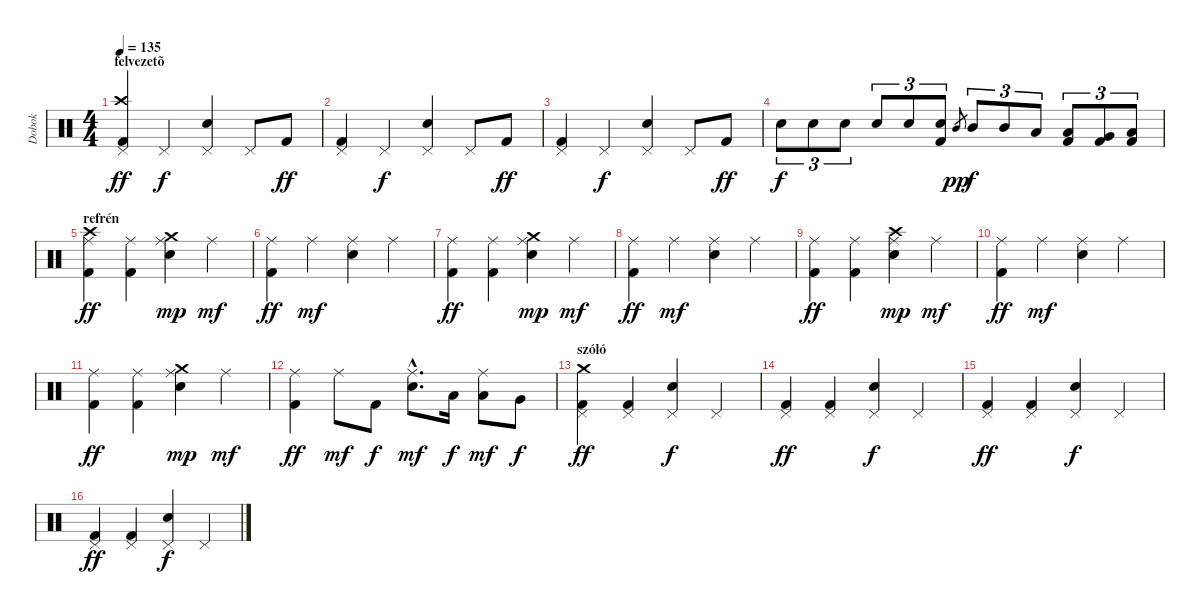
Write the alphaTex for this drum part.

\track ("Dobok" "Dobok") {instrument percussion}
\staff {score}
\articulation defaults
\ts (4 4)
\section ("" "felvezetõ")
\tempo 135
\clef neutral
\ks c
("Pedal Hi-Hat (hit)" "Crash high (hit)" "Kick (hit) 2").4{dy ff} "Pedal Hi-Hat (hit)".4{dy f} ("Pedal Hi-Hat (hit)" "Electric Snare (hit)").4 "Pedal Hi-Hat (hit)".8 "Kick (hit) 2".8{dy ff} |
("Pedal Hi-Hat (hit)" "Kick (hit) 2").4 "Pedal Hi-Hat (hit)".4{dy f} ("Pedal Hi-Hat (hit)" "Electric Snare (hit)").4 "Pedal Hi-Hat (hit)".8 "Kick (hit) 2".8{dy ff} |
("Pedal Hi-Hat (hit)" "Kick (hit) 2").4 "Pedal Hi-Hat (hit)".4{dy f} ("Pedal Hi-Hat (hit)" "Electric Snare (hit)").4 "Pedal Hi-Hat (hit)".8 "Kick (hit) 2".8{dy ff} |
"Electric Snare (hit)".8{tu (3 2) dy f} "Electric Snare (hit)".8{tu (3 2)} "Electric Snare (hit)".8{tu (3 2)} "Electric Snare (hit)".8{tu (3 2)} "Electric Snare (hit)".8{tu (3 2)} ("Electric Snare (hit)" "Kick (hit) 2").8{tu (3 2)} "Mid Tom (hit)".8{gr dy pp} "Mid Tom (hit)".8{tu (3 2) dy f} "Mid Tom (hit)".8{tu (3 2)} "Low Tom (hit)".8{tu (3 2)} ("Low Tom (hit)" "Kick (hit) 2").8{tu (3 2)} ("Very Low Tom (hit)" "Kick (hit) 2").8{tu (3 2)} ("Low Floor Tom (hit)" "Kick (hit) 2").8{tu (3 2)} |
\section ("" "refrén")
("Ride (middle)" "Crash high (hit)" "Kick (hit) 2").4{dy ff} ("Ride (middle)" "Kick (hit) 2").4 ("Ride (middle)" "Crash medium (hit)" "Electric Snare (hit)").4{dy mp} "Ride (middle)".4{dy mf} |
("Ride (middle)" "Kick (hit) 2").4{dy ff} "Ride (middle)".4{dy mf} ("Ride (middle)" "Electric Snare (hit)").4 "Ride (middle)".4 |
("Ride (middle)" "Kick (hit) 2").4{dy ff} ("Ride (middle)" "Kick (hit) 2").4 ("Ride (middle)" "Crash medium (hit)" "Electric Snare (hit)").4{dy mp} "Ride (middle)".4{dy mf} |
("Ride (middle)" "Kick (hit) 2").4{dy ff} "Ride (middle)".4{dy mf} ("Ride (middle)" "Electric Snare (hit)").4 "Ride (middle)".4 |
("Ride (middle)" "Kick (hit) 2").4{dy ff} ("Ride (middle)" "Kick (hit) 2").4 ("Ride (middle)" "Crash high (hit)" "Electric Snare (hit)").4{dy mp} "Ride (middle)".4{dy mf} |
("Ride (middle)" "Kick (hit) 2").4{dy ff} "Ride (middle)".4{dy mf} ("Ride (middle)" "Electric Snare (hit)").4 "Ride (middle)".4 |
("Ride (middle)" "Kick (hit) 2").4{dy ff} ("Ride (middle)" "Kick (hit) 2").4 ("Ride (middle)" "Crash medium (hit)" "Electric Snare (hit)").4{dy mp} "Ride (middle)".4{dy mf} |
("Ride (middle)" "Kick (hit) 2").4{dy ff} "Ride (middle)".8{dy mf} "Kick (hit) 2".8{dy f} ("Ride (middle)"{hac} "Electric Snare (hit)"{hac}).8{d dy mf} "Low Tom (hit)".16{dy f} ("Ride (middle)" "Low Tom (hit)").8{dy mf} "Very Low Tom (hit)".8{dy f} |
\section ("" "szóló")
("Pedal Hi-Hat (hit)" "Crash medium (hit)" "Kick (hit) 2").4{dy ff} ("Pedal Hi-Hat (hit)" "Kick (hit) 2").4 ("Pedal Hi-Hat (hit)" "Electric Snare (hit)").4{dy f} "Pedal Hi-Hat (hit)".4 |
("Pedal Hi-Hat (hit)" "Kick (hit) 2").4{dy ff} ("Pedal Hi-Hat (hit)" "Kick (hit) 2").4 ("Pedal Hi-Hat (hit)" "Electric Snare (hit)").4{dy f} "Pedal Hi-Hat (hit)".4 |
("Pedal Hi-Hat (hit)" "Kick (hit) 2").4{dy ff} ("Pedal Hi-Hat (hit)" "Kick (hit) 2").4 ("Pedal Hi-Hat (hit)" "Electric Snare (hit)").4{dy f} "Pedal Hi-Hat (hit)".4 |
("Pedal Hi-Hat (hit)" "Kick (hit) 2").4{dy ff} ("Pedal Hi-Hat (hit)" "Kick (hit) 2").4 ("Pedal Hi-Hat (hit)" "Electric Snare (hit)").4{dy f} "Pedal Hi-Hat (hit)".4
